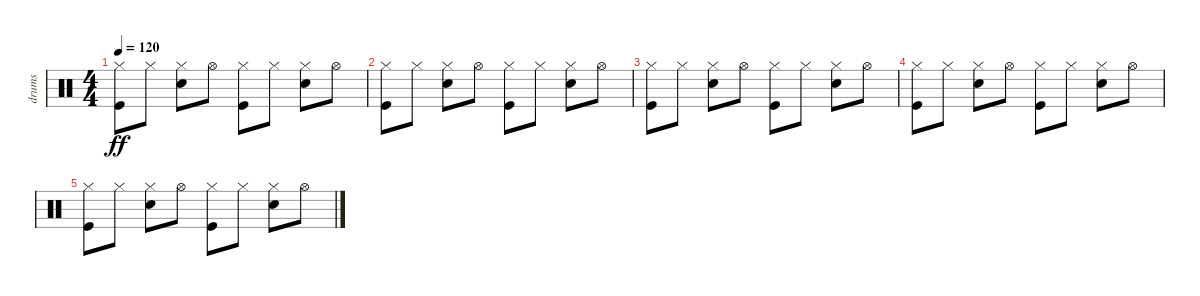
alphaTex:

\track ("drums" "drums") {instrument percussion}
\staff {score}
\articulation defaults
\ts (4 4)
\tempo 120
\clef neutral
\ks c
("Hi-Hat (closed)" "Kick (hit)").8{dy ff} "Hi-Hat (closed)".8 ("Hi-Hat (closed)" "Snare (hit) 2").8 "Hi-Hat (open)".8 ("Hi-Hat (closed)" "Kick (hit)").8 "Hi-Hat (closed)".8 ("Hi-Hat (closed)" "Snare (hit) 2").8 "Hi-Hat (open)".8 |
("Hi-Hat (closed)" "Kick (hit)").8 "Hi-Hat (closed)".8 ("Hi-Hat (closed)" "Snare (hit) 2").8 "Hi-Hat (open)".8 ("Hi-Hat (closed)" "Kick (hit)").8 "Hi-Hat (closed)".8 ("Hi-Hat (closed)" "Snare (hit) 2").8 "Hi-Hat (open)".8 |
("Hi-Hat (closed)" "Kick (hit)").8 "Hi-Hat (closed)".8 ("Hi-Hat (closed)" "Snare (hit) 2").8 "Hi-Hat (open)".8 ("Hi-Hat (closed)" "Kick (hit)").8 "Hi-Hat (closed)".8 ("Hi-Hat (closed)" "Snare (hit) 2").8 "Hi-Hat (open)".8 |
("Hi-Hat (closed)" "Kick (hit)").8 "Hi-Hat (closed)".8 ("Hi-Hat (closed)" "Snare (hit) 2").8 "Hi-Hat (open)".8 ("Hi-Hat (closed)" "Kick (hit)").8 "Hi-Hat (closed)".8 ("Hi-Hat (closed)" "Snare (hit) 2").8 "Hi-Hat (open)".8 |
("Hi-Hat (closed)" "Kick (hit)").8 "Hi-Hat (closed)".8 ("Hi-Hat (closed)" "Snare (hit) 2").8 "Hi-Hat (open)".8 ("Hi-Hat (closed)" "Kick (hit)").8 "Hi-Hat (closed)".8 ("Hi-Hat (closed)" "Snare (hit) 2").8 "Hi-Hat (open)".8
